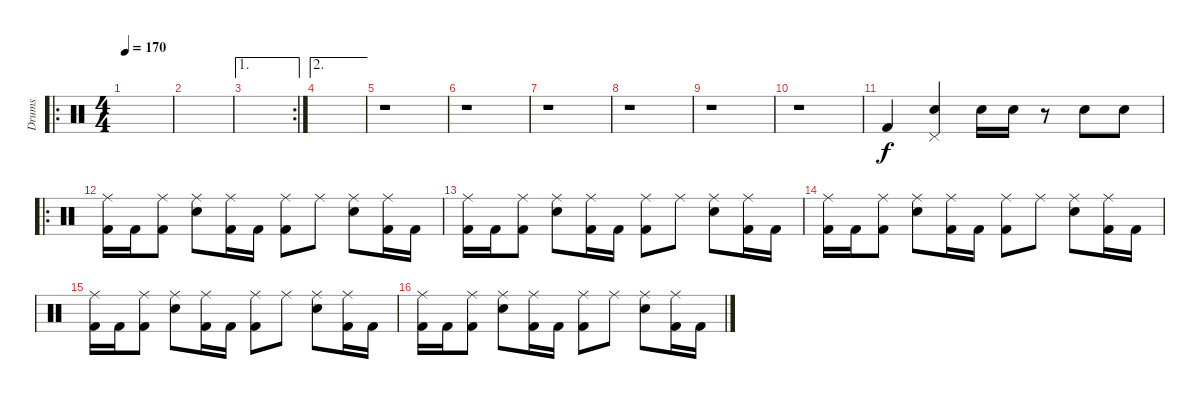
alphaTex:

\track ("Drums" "Drums") {instrument percussion}
\staff {score}
\articulation defaults
\ro
\ts (4 4)
\tempo 170
\clef neutral
\ks c
|
|
\ae 1
\rc 2
|
\ae 2
|
r.1 |
r.1 |
r.1 |
r.1 |
r.1 |
r.1 |
"Kick (hit) 2".4 ("Pedal Hi-Hat (hit)" "Snare (hit) 2").4 "Snare (hit) 2".16 "Snare (hit) 2".16 r.8 "Snare (hit) 2".8 "Snare (hit) 2".8 |
\ro
("Ride (middle)" "Kick (hit) 2").16 "Kick (hit) 2".16 ("Ride (middle)" "Kick (hit) 2").8 ("Ride (middle)" "Snare (hit) 2").8 ("Ride (middle)" "Kick (hit) 2").16 "Kick (hit) 2".16 ("Ride (middle)" "Kick (hit) 2").8 "Ride (middle)".8 ("Ride (middle)" "Snare (hit) 2").8 ("Ride (middle)" "Kick (hit) 2").16 "Kick (hit) 2".16 |
("Ride (middle)" "Kick (hit) 2").16 "Kick (hit) 2".16 ("Ride (middle)" "Kick (hit) 2").8 ("Ride (middle)" "Snare (hit) 2").8 ("Ride (middle)" "Kick (hit) 2").16 "Kick (hit) 2".16 ("Ride (middle)" "Kick (hit) 2").8 "Ride (middle)".8 ("Ride (middle)" "Snare (hit) 2").8 ("Ride (middle)" "Kick (hit) 2").16 "Kick (hit) 2".16 |
("Ride (middle)" "Kick (hit) 2").16 "Kick (hit) 2".16 ("Ride (middle)" "Kick (hit) 2").8 ("Ride (middle)" "Snare (hit) 2").8 ("Ride (middle)" "Kick (hit) 2").16 "Kick (hit) 2".16 ("Ride (middle)" "Kick (hit) 2").8 "Ride (middle)".8 ("Ride (middle)" "Snare (hit) 2").8 ("Ride (middle)" "Kick (hit) 2").16 "Kick (hit) 2".16 |
("Ride (middle)" "Kick (hit) 2").16 "Kick (hit) 2".16 ("Ride (middle)" "Kick (hit) 2").8 ("Ride (middle)" "Snare (hit) 2").8 ("Ride (middle)" "Kick (hit) 2").16 "Kick (hit) 2".16 ("Ride (middle)" "Kick (hit) 2").8 "Ride (middle)".8 ("Ride (middle)" "Snare (hit) 2").8 ("Ride (middle)" "Kick (hit) 2").16 "Kick (hit) 2".16 |
("Ride (middle)" "Kick (hit) 2").16 "Kick (hit) 2".16 ("Ride (middle)" "Kick (hit) 2").8 ("Ride (middle)" "Snare (hit) 2").8 ("Ride (middle)" "Kick (hit) 2").16 "Kick (hit) 2".16 ("Ride (middle)" "Kick (hit) 2").8 "Ride (middle)".8 ("Ride (middle)" "Snare (hit) 2").8 ("Ride (middle)" "Kick (hit) 2").16 "Kick (hit) 2".16
